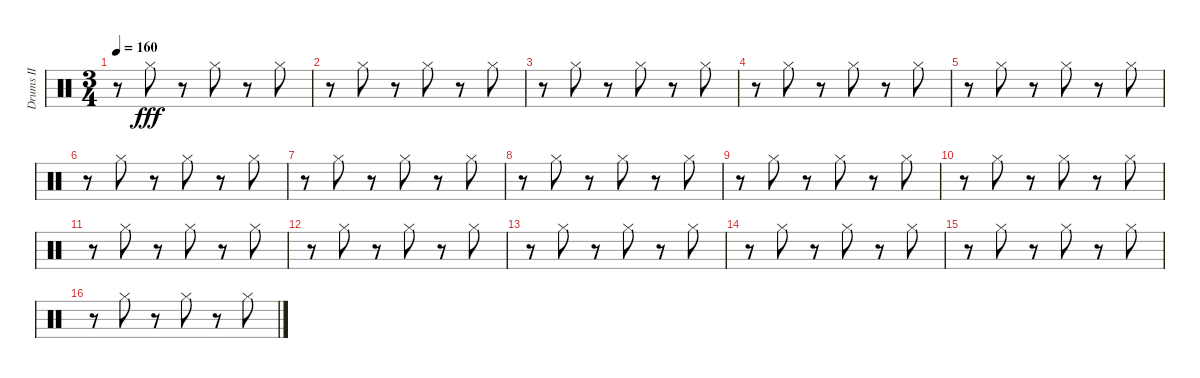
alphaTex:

\track ("Drums II" "Drums II") {instrument percussion}
\staff {score}
\articulation defaults
\ts (3 4)
\tempo 160
\clef neutral
\ks c
r.8{dy fff} "Hi-Hat (closed)".8 r.8 "Hi-Hat (closed)".8 r.8 "Hi-Hat (closed)".8 |
r.8 "Hi-Hat (closed)".8 r.8 "Hi-Hat (closed)".8 r.8 "Hi-Hat (closed)".8 |
r.8 "Hi-Hat (closed)".8 r.8 "Hi-Hat (closed)".8 r.8 "Hi-Hat (closed)".8 |
r.8 "Hi-Hat (closed)".8 r.8 "Hi-Hat (closed)".8 r.8 "Hi-Hat (closed)".8 |
r.8 "Hi-Hat (closed)".8 r.8 "Hi-Hat (closed)".8 r.8 "Hi-Hat (closed)".8 |
r.8 "Hi-Hat (closed)".8 r.8 "Hi-Hat (closed)".8 r.8 "Hi-Hat (closed)".8 |
r.8 "Hi-Hat (closed)".8 r.8 "Hi-Hat (closed)".8 r.8 "Hi-Hat (closed)".8 |
r.8 "Hi-Hat (closed)".8 r.8 "Hi-Hat (closed)".8 r.8 "Hi-Hat (closed)".8 |
r.8 "Hi-Hat (closed)".8 r.8 "Hi-Hat (closed)".8 r.8 "Hi-Hat (closed)".8 |
r.8 "Hi-Hat (closed)".8 r.8 "Hi-Hat (closed)".8 r.8 "Hi-Hat (closed)".8 |
r.8 "Hi-Hat (closed)".8 r.8 "Hi-Hat (closed)".8 r.8 "Hi-Hat (closed)".8 |
r.8 "Hi-Hat (closed)".8 r.8 "Hi-Hat (closed)".8 r.8 "Hi-Hat (closed)".8 |
r.8 "Hi-Hat (closed)".8 r.8 "Hi-Hat (closed)".8 r.8 "Hi-Hat (closed)".8 |
r.8 "Hi-Hat (closed)".8 r.8 "Hi-Hat (closed)".8 r.8 "Hi-Hat (closed)".8 |
r.8 "Hi-Hat (closed)".8 r.8 "Hi-Hat (closed)".8 r.8 "Hi-Hat (closed)".8 |
r.8 "Hi-Hat (closed)".8 r.8 "Hi-Hat (closed)".8 r.8 "Hi-Hat (closed)".8
